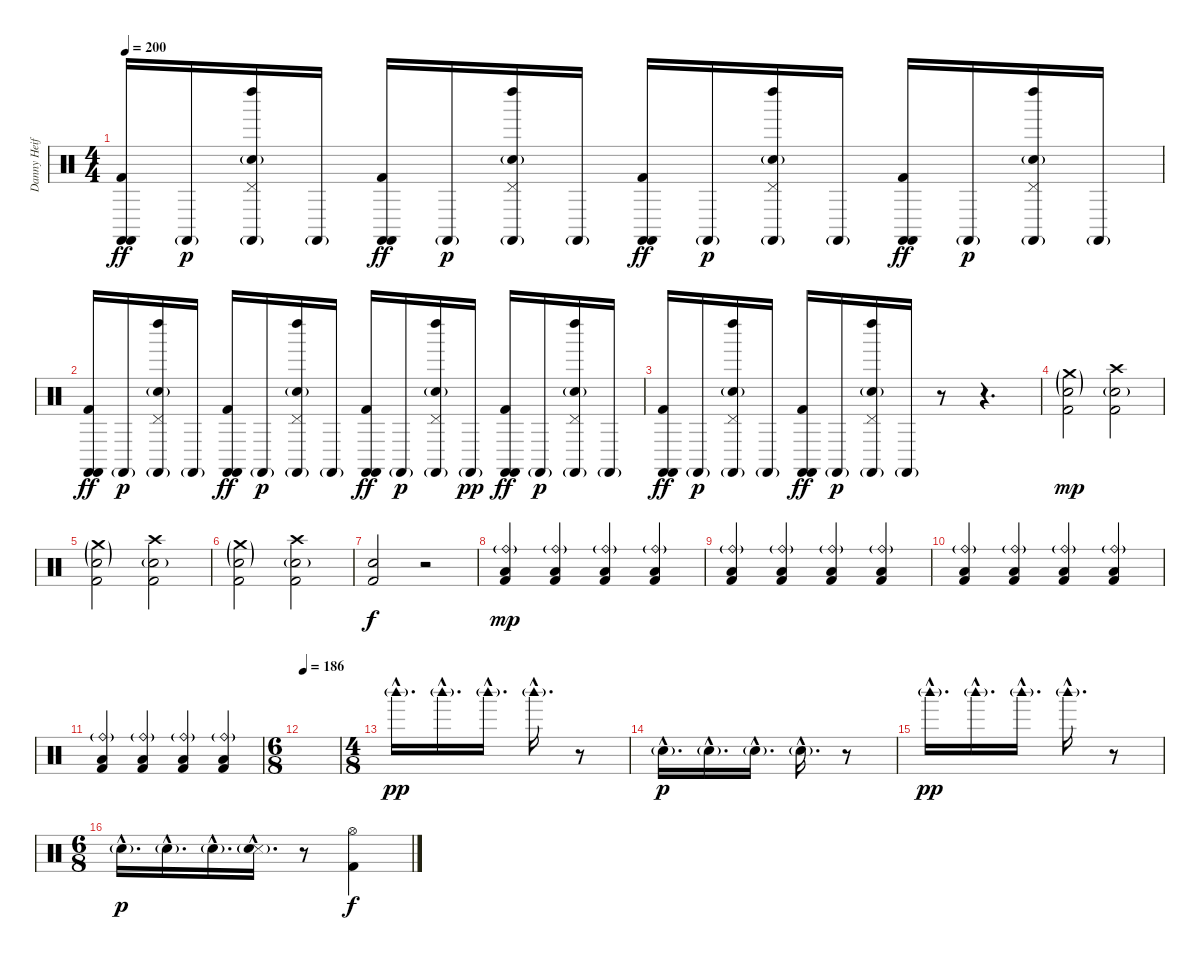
\track ("Danny Heifetz - Drums" "Danny Heif") {instrument percussion}
\staff {score}
\articulation defaults
\ts (4 4)
\tempo 200
\clef neutral
\ks c
("Kick (hit) 2" "Castanets (hit)" "Castanets (hit)").16{dy ff} "Castanets (hit)"{g}.16{dy p} ("Left Maraca (hit)" "Pedal Hi-Hat (hit)" "Electric Snare (hit)"{g} "Castanets (hit)"{g}).16 "Castanets (hit)"{g}.16 ("Kick (hit) 2" "Castanets (hit)" "Castanets (hit)").16{dy ff} "Castanets (hit)"{g}.16{dy p} ("Left Maraca (hit)" "Pedal Hi-Hat (hit)" "Electric Snare (hit)"{g} "Castanets (hit)"{g}).16 "Castanets (hit)"{g}.16 ("Kick (hit) 2" "Castanets (hit)" "Castanets (hit)").16{dy ff} "Castanets (hit)"{g}.16{dy p} ("Left Maraca (hit)" "Pedal Hi-Hat (hit)" "Electric Snare (hit)"{g} "Castanets (hit)"{g}).16 "Castanets (hit)"{g}.16 ("Kick (hit) 2" "Castanets (hit)" "Castanets (hit)").16{dy ff} "Castanets (hit)"{g}.16{dy p} ("Left Maraca (hit)" "Pedal Hi-Hat (hit)" "Electric Snare (hit)"{g} "Castanets (hit)"{g}).16 "Castanets (hit)"{g}.16 |
("Kick (hit) 2" "Castanets (hit)" "Castanets (hit)").16{dy ff} "Castanets (hit)"{g}.16{dy p} ("Left Maraca (hit)" "Pedal Hi-Hat (hit)" "Electric Snare (hit)"{g} "Castanets (hit)"{g}).16 "Castanets (hit)"{g}.16 ("Kick (hit) 2" "Castanets (hit)" "Castanets (hit)").16{dy ff} "Castanets (hit)"{g}.16{dy p} ("Left Maraca (hit)" "Pedal Hi-Hat (hit)" "Electric Snare (hit)"{g} "Castanets (hit)"{g}).16 "Castanets (hit)"{g}.16 ("Kick (hit) 2" "Castanets (hit)" "Castanets (hit)").16{dy ff} "Castanets (hit)"{g}.16{dy p} ("Left Maraca (hit)" "Pedal Hi-Hat (hit)" "Electric Snare (hit)"{g} "Castanets (hit)"{g}).16 "Castanets (hit)"{g}.16{dy pp} ("Kick (hit) 2" "Castanets (hit)" "Castanets (hit)").16{dy ff} "Castanets (hit)"{g}.16{dy p} ("Left Maraca (hit)" "Pedal Hi-Hat (hit)" "Electric Snare (hit)"{g} "Castanets (hit)"{g}).16 "Castanets (hit)"{g}.16 |
("Kick (hit) 2" "Castanets (hit)" "Castanets (hit)").16{dy ff} "Castanets (hit)"{g}.16{dy p} ("Left Maraca (hit)" "Pedal Hi-Hat (hit)" "Electric Snare (hit)"{g} "Castanets (hit)"{g}).16 "Castanets (hit)"{g}.16 ("Kick (hit) 2" "Castanets (hit)" "Castanets (hit)").16{dy ff} "Castanets (hit)"{g}.16{dy p} ("Left Maraca (hit)" "Pedal Hi-Hat (hit)" "Electric Snare (hit)"{g} "Castanets (hit)"{g}).16 "Castanets (hit)"{g}.16 r.8 r.4{d} |
("Crash medium (hit)"{g} "Electric Snare (hit)"{g} "Kick (hit) 2").2{dy mp volume 15} ("Crash high (hit)" "Electric Snare (hit)"{g} "Kick (hit) 2").2 |
("Crash medium (hit)"{g} "Electric Snare (hit)"{g} "Kick (hit) 2").2 ("Crash high (hit)" "Electric Snare (hit)"{g} "Kick (hit) 2").2 |
("Crash medium (hit)"{g} "Electric Snare (hit)"{g} "Kick (hit) 2").2 ("Crash high (hit)" "Electric Snare (hit)"{g} "Kick (hit) 2").2 |
("Electric Snare (hit)" "Kick (hit) 2").2{dy f} r.2 |
("Ride (bell)"{g} "Low Tom (hit)" "Kick (hit) 2").4{dy mp} ("Ride (bell)"{g} "Low Tom (hit)" "Kick (hit) 2").4 ("Ride (bell)"{g} "Low Tom (hit)" "Kick (hit) 2").4 ("Ride (bell)"{g} "Low Tom (hit)" "Kick (hit) 2").4 |
("Ride (bell)"{g} "Low Tom (hit)" "Kick (hit) 2").4 ("Ride (bell)"{g} "Low Tom (hit)" "Kick (hit) 2").4 ("Ride (bell)"{g} "Low Tom (hit)" "Kick (hit) 2").4 ("Ride (bell)"{g} "Low Tom (hit)" "Kick (hit) 2").4 |
("Ride (bell)"{g} "Low Tom (hit)" "Kick (hit) 2").4 ("Ride (bell)"{g} "Low Tom (hit)" "Kick (hit) 2").4 ("Ride (bell)"{g} "Low Tom (hit)" "Kick (hit) 2").4 ("Ride (bell)"{g} "Low Tom (hit)" "Kick (hit) 2").4 |
("Ride (bell)"{g} "Low Tom (hit)" "Kick (hit) 2").4 ("Ride (bell)"{g} "Low Tom (hit)" "Kick (hit) 2").4 ("Ride (bell)"{g} "Low Tom (hit)" "Kick (hit) 2").4 ("Ride (bell)"{g} "Low Tom (hit)" "Kick (hit) 2").4 |
\ts (6 8)
\tempo 186
|
\ts (4 8)
"Woodblock high (hit)"{g hac}.16{d dy pp} "Woodblock high (hit)"{g hac}.16{d} "Woodblock high (hit)"{g hac}.16{d} "Woodblock high (hit)"{g hac}.16{d} r.8 |
"Electric Snare (hit)"{g hac}.16{d dy p} "Electric Snare (hit)"{g hac}.16{d} "Electric Snare (hit)"{g hac}.16{d} "Electric Snare (hit)"{g hac}.16{d} r.8 |
"Woodblock high (hit)"{g hac}.16{d dy pp} "Woodblock high (hit)"{g hac}.16{d} "Woodblock high (hit)"{g hac}.16{d} "Woodblock high (hit)"{g hac}.16{d} r.8 |
\ts (6 8)
"Electric Snare (hit)"{g hac}.16{d dy p} "Electric Snare (hit)"{g hac}.16{d} "Electric Snare (hit)"{g hac}.16{d} ("Metronome (hit)"{hac} "Electric Snare (hit)"{g hac}).16{d} r.8 ("Hi-Hat (open)" "Kick (hit) 2").4{dy f}
